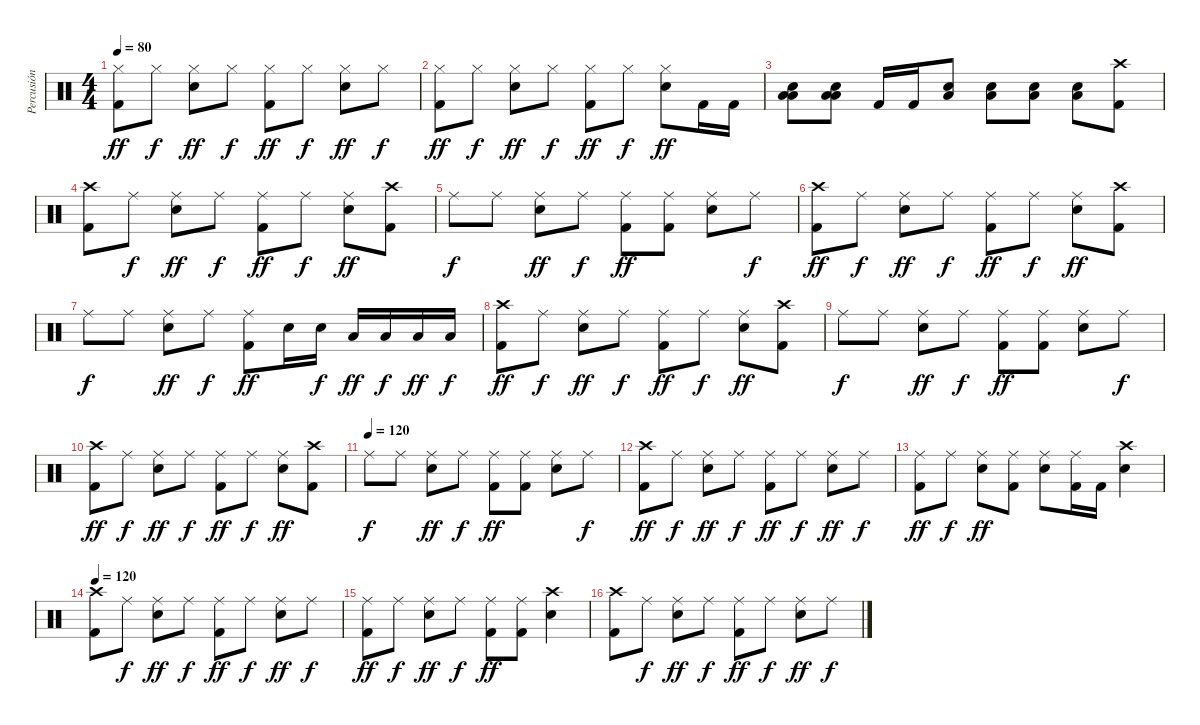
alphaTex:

\track ("Percusión" "Percusión") {instrument percussion}
\staff {score}
\articulation defaults
\ts (4 4)
\tempo 80
\clef neutral
\ks c
("Hi-Hat (closed)" "Kick (hit) 2").8{dy ff} "Hi-Hat (closed)".8{dy f} ("Hi-Hat (closed)" "Snare (hit) 2").8{dy ff} "Hi-Hat (closed)".8{dy f} ("Hi-Hat (closed)" "Kick (hit) 2").8{dy ff} "Hi-Hat (closed)".8{dy f} ("Hi-Hat (closed)" "Snare (hit) 2").8{dy ff} "Hi-Hat (closed)".8{dy f} |
("Hi-Hat (closed)" "Kick (hit) 2").8{dy ff} "Hi-Hat (closed)".8{dy f} ("Hi-Hat (closed)" "Snare (hit) 2").8{dy ff} "Hi-Hat (closed)".8{dy f} ("Hi-Hat (closed)" "Kick (hit) 2").8{dy ff} "Hi-Hat (closed)".8{dy f} ("Hi-Hat (closed)" "Snare (hit) 2").8{dy ff} "Kick (hit) 2".16 "Kick (hit) 2".16 |
("Low Tom (hit)" "Snare (hit) 2" "Low Floor Tom (hit)").8 ("Low Tom (hit)" "Snare (hit) 2" "Low Floor Tom (hit)").8 "Kick (hit) 2".16 "Kick (hit) 2".16 ("Snare (hit) 2" "Low Floor Tom (hit)").8 ("Snare (hit) 2" "Low Floor Tom (hit)").8 ("Snare (hit) 2" "Low Floor Tom (hit)").8 ("Snare (hit) 2" "Low Floor Tom (hit)").8 ("Crash high (hit)" "Kick (hit) 2").8 |
("Crash high (hit)" "Kick (hit) 2").8 "Ride (middle)".8{dy f} ("Ride (middle)" "Snare (hit) 2").8{dy ff} "Ride (middle)".8{dy f} ("Ride (middle)" "Kick (hit) 2").8{dy ff} "Ride (middle)".8{dy f} ("Ride (middle)" "Snare (hit) 2").8{dy ff} ("Crash high (hit)" "Kick (hit) 2").8 |
"Ride (middle)".8{dy f} "Ride (middle)".8 ("Ride (middle)" "Snare (hit) 2").8{dy ff} "Ride (middle)".8{dy f} ("Ride (middle)" "Kick (hit) 2").8{dy ff} ("Ride (middle)" "Kick (hit) 2").8 ("Ride (middle)" "Snare (hit) 2").8 "Ride (middle)".8{dy f} |
("Crash high (hit)" "Kick (hit) 2").8{dy ff} "Ride (middle)".8{dy f} ("Ride (middle)" "Snare (hit) 2").8{dy ff} "Ride (middle)".8{dy f} ("Ride (middle)" "Kick (hit) 2").8{dy ff} "Ride (middle)".8{dy f} ("Ride (middle)" "Snare (hit) 2").8{dy ff} ("Crash high (hit)" "Kick (hit) 2").8 |
"Ride (middle)".8{dy f} "Ride (middle)".8 ("Ride (middle)" "Snare (hit) 2").8{dy ff} "Ride (middle)".8{dy f} ("Ride (middle)" "Kick (hit) 2").8{dy ff} "Snare (hit) 2".16 "Snare (hit) 2".16{dy f} "Low Tom (hit)".16{dy ff} "Low Tom (hit)".16{dy f} "Low Floor Tom (hit)".16{dy ff} "Low Floor Tom (hit)".16{dy f} |
("Crash high (hit)" "Kick (hit) 2").8{dy ff} "Ride (middle)".8{dy f} ("Ride (middle)" "Snare (hit) 2").8{dy ff} "Ride (middle)".8{dy f} ("Ride (middle)" "Kick (hit) 2").8{dy ff} "Ride (middle)".8{dy f} ("Ride (middle)" "Snare (hit) 2").8{dy ff} ("Crash high (hit)" "Kick (hit) 2").8 |
"Ride (middle)".8{dy f} "Ride (middle)".8 ("Ride (middle)" "Snare (hit) 2").8{dy ff} "Ride (middle)".8{dy f} ("Ride (middle)" "Kick (hit) 2").8{dy ff} ("Ride (middle)" "Kick (hit) 2").8 ("Ride (middle)" "Snare (hit) 2").8 "Ride (middle)".8{dy f} |
("Crash high (hit)" "Kick (hit) 2").8{dy ff} "Ride (middle)".8{dy f} ("Ride (middle)" "Snare (hit) 2").8{dy ff} "Ride (middle)".8{dy f} ("Ride (middle)" "Kick (hit) 2").8{dy ff} "Ride (middle)".8{dy f} ("Ride (middle)" "Snare (hit) 2").8{dy ff} ("Crash high (hit)" "Kick (hit) 2").8 |
\tempo (120)
"Ride (middle)".8{dy f} "Ride (middle)".8 ("Ride (middle)" "Snare (hit) 2").8{dy ff} "Ride (middle)".8{dy f} ("Ride (middle)" "Kick (hit) 2").8{dy ff} ("Ride (middle)" "Kick (hit) 2").8 ("Ride (middle)" "Snare (hit) 2").8 "Ride (middle)".8{dy f} |
("Crash high (hit)" "Kick (hit) 2").8{dy ff} "Ride (middle)".8{dy f} ("Ride (middle)" "Snare (hit) 2").8{dy ff} "Ride (middle)".8{dy f} ("Ride (middle)" "Kick (hit) 2").8{dy ff} "Ride (middle)".8{dy f} ("Ride (middle)" "Snare (hit) 2").8{dy ff} "Ride (middle)".8{dy f} |
("Ride (middle)" "Kick (hit) 2").8{dy ff} "Ride (middle)".8{dy f} ("Ride (middle)" "Snare (hit) 2").8{dy ff} ("Ride (middle)" "Kick (hit) 2").8 ("Ride (middle)" "Snare (hit) 2").8 ("Ride (middle)" "Kick (hit) 2").16 "Kick (hit) 2".16 ("Crash high (hit)" "Snare (hit) 2").4 |
\tempo 120
("Crash high (hit)" "Kick (hit) 2").8 "Ride (middle)".8{dy f} ("Ride (middle)" "Snare (hit) 2").8{dy ff} "Ride (middle)".8{dy f} ("Ride (middle)" "Kick (hit) 2").8{dy ff} "Ride (middle)".8{dy f} ("Ride (middle)" "Snare (hit) 2").8{dy ff} "Ride (middle)".8{dy f} |
("Ride (middle)" "Kick (hit) 2").8{dy ff} "Ride (middle)".8{dy f} ("Ride (middle)" "Snare (hit) 2").8{dy ff} "Ride (middle)".8{dy f} ("Ride (middle)" "Kick (hit) 2").8{dy ff} ("Ride (middle)" "Kick (hit) 2").8 ("Crash high (hit)" "Snare (hit) 2").4 |
("Crash high (hit)" "Kick (hit) 2").8 "Ride (middle)".8{dy f} ("Ride (middle)" "Snare (hit) 2").8{dy ff} "Ride (middle)".8{dy f} ("Ride (middle)" "Kick (hit) 2").8{dy ff} "Ride (middle)".8{dy f} ("Ride (middle)" "Snare (hit) 2").8{dy ff} "Ride (middle)".8{dy f}
